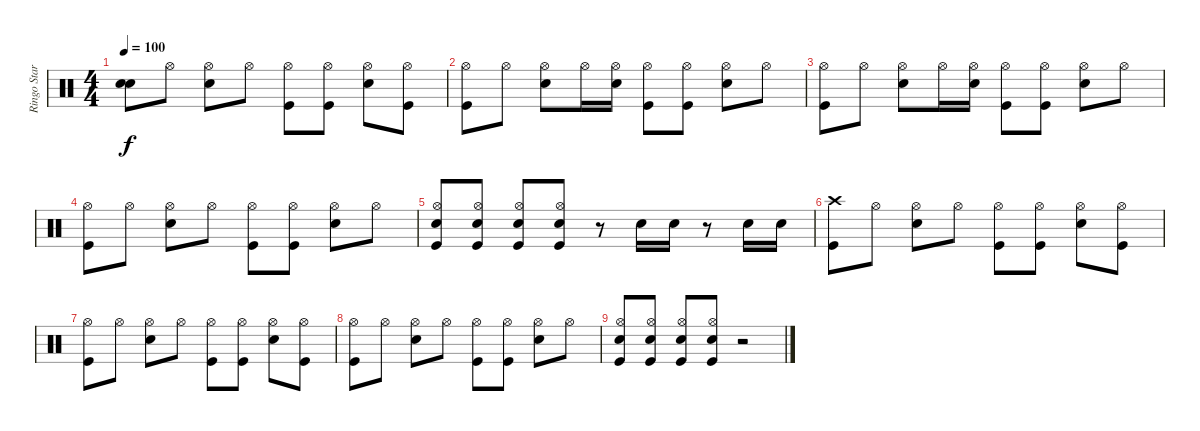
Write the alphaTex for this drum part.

\track ("Ringo Starr" "Ringo Star") {instrument percussion}
\staff {score}
\articulation defaults
\ts (4 4)
\tempo 100
\clef neutral
\ks c
("Snare (hit)"{t} "Snare (hit)"{t}).8{dy f} "Hi-Hat (open)".8 ("Hi-Hat (open)" "Snare (hit) 2").8 "Hi-Hat (open)".8 ("Hi-Hat (open)" "Kick (hit)").8 ("Hi-Hat (open)" "Kick (hit)").8 ("Hi-Hat (open)" "Snare (hit) 2").8 ("Hi-Hat (open)" "Kick (hit)").8 |
("Hi-Hat (open)" "Kick (hit)").8 "Hi-Hat (open)".8 ("Hi-Hat (open)" "Snare (hit) 2").8 "Hi-Hat (open)".16 ("Hi-Hat (open)" "Snare (hit) 2").16 ("Hi-Hat (open)" "Kick (hit)").8 ("Hi-Hat (open)" "Kick (hit)").8 ("Hi-Hat (open)" "Snare (hit) 2").8 "Hi-Hat (open)".8 |
("Hi-Hat (open)" "Kick (hit)").8 "Hi-Hat (open)".8 ("Hi-Hat (open)" "Snare (hit) 2").8 "Hi-Hat (open)".16 ("Hi-Hat (open)" "Snare (hit) 2").16 ("Hi-Hat (open)" "Kick (hit)").8 ("Hi-Hat (open)" "Kick (hit)").8 ("Hi-Hat (open)" "Snare (hit) 2").8 "Hi-Hat (open)".8 |
("Hi-Hat (open)" "Kick (hit)").8 "Hi-Hat (open)".8 ("Hi-Hat (open)" "Snare (hit) 2").8 "Hi-Hat (open)".8 ("Hi-Hat (open)" "Kick (hit)").8 ("Hi-Hat (open)" "Kick (hit)").8 ("Hi-Hat (open)" "Snare (hit) 2").8 "Hi-Hat (open)".8 |
("Hi-Hat (open)" "Snare (hit) 2" "Kick (hit)").8 ("Hi-Hat (open)" "Snare (hit) 2" "Kick (hit)").8 ("Hi-Hat (open)" "Snare (hit) 2" "Kick (hit)").8 ("Hi-Hat (open)" "Snare (hit) 2" "Kick (hit)").8 r.8 "Snare (hit) 2".16 "Snare (hit) 2".16 r.8 "Snare (hit) 2".16 "Snare (hit) 2".16 |
("Crash high (hit)" "Kick (hit)").8 "Hi-Hat (open)".8 ("Hi-Hat (open)" "Snare (hit) 2").8 "Hi-Hat (open)".8 ("Hi-Hat (open)" "Kick (hit)").8 ("Hi-Hat (open)" "Kick (hit)").8 ("Hi-Hat (open)" "Snare (hit) 2").8 ("Hi-Hat (open)" "Kick (hit)").8 |
("Hi-Hat (open)" "Kick (hit)").8 "Hi-Hat (open)".8 ("Hi-Hat (open)" "Snare (hit) 2").8 "Hi-Hat (open)".8 ("Hi-Hat (open)" "Kick (hit)").8 ("Hi-Hat (open)" "Kick (hit)").8 ("Hi-Hat (open)" "Snare (hit) 2").8 ("Hi-Hat (open)" "Kick (hit)").8 |
("Hi-Hat (open)" "Kick (hit)").8 "Hi-Hat (open)".8 ("Hi-Hat (open)" "Snare (hit) 2").8 "Hi-Hat (open)".8 ("Hi-Hat (open)" "Kick (hit)").8 ("Hi-Hat (open)" "Kick (hit)").8 ("Hi-Hat (open)" "Snare (hit) 2").8 "Hi-Hat (open)".8 |
("Hi-Hat (open)" "Snare (hit) 2" "Kick (hit)").8 ("Hi-Hat (open)" "Snare (hit) 2" "Kick (hit)").8 ("Hi-Hat (open)" "Snare (hit) 2" "Kick (hit)").8 ("Hi-Hat (open)" "Snare (hit) 2" "Kick (hit)").8 r.2
